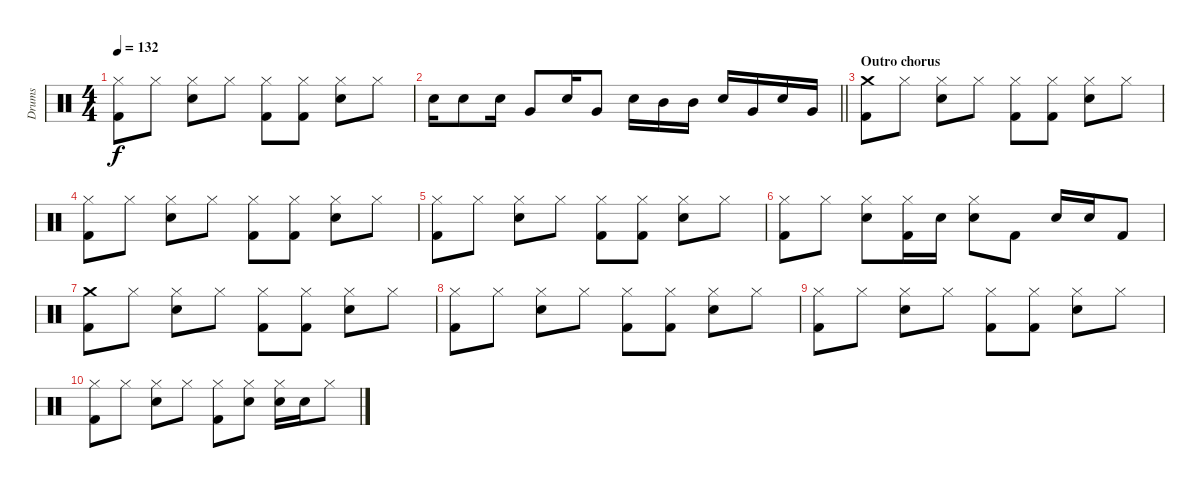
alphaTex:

\track ("Drums" "Drums") {instrument percussion}
\staff {score}
\articulation defaults
\ts (4 4)
\tempo 132
\clef neutral
\ks c
("Kick (hit) 2" "Hi-Hat (closed)").8{dy f} "Hi-Hat (closed)".8 ("Snare (hit) 2" "Hi-Hat (closed)").8 "Hi-Hat (closed)".8 ("Kick (hit) 2" "Hi-Hat (closed)").8 ("Kick (hit) 2" "Hi-Hat (closed)").8 ("Snare (hit) 2" "Hi-Hat (closed)").8 "Hi-Hat (closed)".8 |
\barLineRight lightlight "Snare (hit) 2".16 "Snare (hit) 2".8 "Snare (hit) 2".16 "Very Low Tom (hit)".8 "Snare (hit) 2".16 "Very Low Tom (hit)".8 "Snare (hit) 2".16 "Mid Tom (hit)".16 "Mid Tom (hit)".16 "Snare (hit) 2".16 "Very Low Tom (hit)".16 "Snare (hit) 2".16 "Very Low Tom (hit)".16
|
\section ("" "Outro chorus")
("Kick (hit) 2" "Crash medium (hit)").8 "Hi-Hat (closed)".8 ("Snare (hit) 2" "Hi-Hat (closed)").8 "Hi-Hat (closed)".8 ("Kick (hit) 2" "Hi-Hat (closed)").8 ("Kick (hit) 2" "Hi-Hat (closed)").8 ("Snare (hit) 2" "Hi-Hat (closed)").8 "Hi-Hat (closed)".8 |
("Kick (hit) 2" "Hi-Hat (closed)").8 "Hi-Hat (closed)".8 ("Snare (hit) 2" "Hi-Hat (closed)").8 "Hi-Hat (closed)".8 ("Kick (hit) 2" "Hi-Hat (closed)").8 ("Kick (hit) 2" "Hi-Hat (closed)").8 ("Snare (hit) 2" "Hi-Hat (closed)").8 "Hi-Hat (closed)".8 |
("Kick (hit) 2" "Hi-Hat (closed)").8 "Hi-Hat (closed)".8 ("Snare (hit) 2" "Hi-Hat (closed)").8 "Hi-Hat (closed)".8 ("Kick (hit) 2" "Hi-Hat (closed)").8 ("Kick (hit) 2" "Hi-Hat (closed)").8 ("Snare (hit) 2" "Hi-Hat (closed)").8 "Hi-Hat (closed)".8 |
("Kick (hit) 2" "Hi-Hat (closed)").8 "Hi-Hat (closed)".8 ("Snare (hit) 2" "Hi-Hat (closed)").8 ("Kick (hit) 2" "Hi-Hat (closed)").16 "Snare (hit) 2".16 ("Snare (hit) 2" "Hi-Hat (closed)").8 "Kick (hit) 2".8 "Snare (hit) 2".16 "Snare (hit) 2".16 "Kick (hit) 2".8 |
("Kick (hit) 2" "Crash medium (hit)").8 "Hi-Hat (closed)".8 ("Snare (hit) 2" "Hi-Hat (closed)").8 "Hi-Hat (closed)".8 ("Kick (hit) 2" "Hi-Hat (closed)").8 ("Kick (hit) 2" "Hi-Hat (closed)").8 ("Snare (hit) 2" "Hi-Hat (closed)").8 "Hi-Hat (closed)".8 |
("Kick (hit) 2" "Hi-Hat (closed)").8 "Hi-Hat (closed)".8 ("Snare (hit) 2" "Hi-Hat (closed)").8 "Hi-Hat (closed)".8 ("Kick (hit) 2" "Hi-Hat (closed)").8 ("Kick (hit) 2" "Hi-Hat (closed)").8 ("Snare (hit) 2" "Hi-Hat (closed)").8 "Hi-Hat (closed)".8 |
("Kick (hit) 2" "Hi-Hat (closed)").8 "Hi-Hat (closed)".8 ("Snare (hit) 2" "Hi-Hat (closed)").8 "Hi-Hat (closed)".8 ("Kick (hit) 2" "Hi-Hat (closed)").8 ("Kick (hit) 2" "Hi-Hat (closed)").8 ("Snare (hit) 2" "Hi-Hat (closed)").8 "Hi-Hat (closed)".8 |
("Kick (hit) 2" "Hi-Hat (closed)").8 "Hi-Hat (closed)".8 ("Snare (hit) 2" "Hi-Hat (closed)").8 "Hi-Hat (closed)".8 ("Kick (hit) 2" "Hi-Hat (closed)").8 ("Snare (hit) 2" "Hi-Hat (closed)").8 ("Snare (hit) 2" "Hi-Hat (closed)").16 "Snare (hit) 2".16 "Hi-Hat (closed)".8
